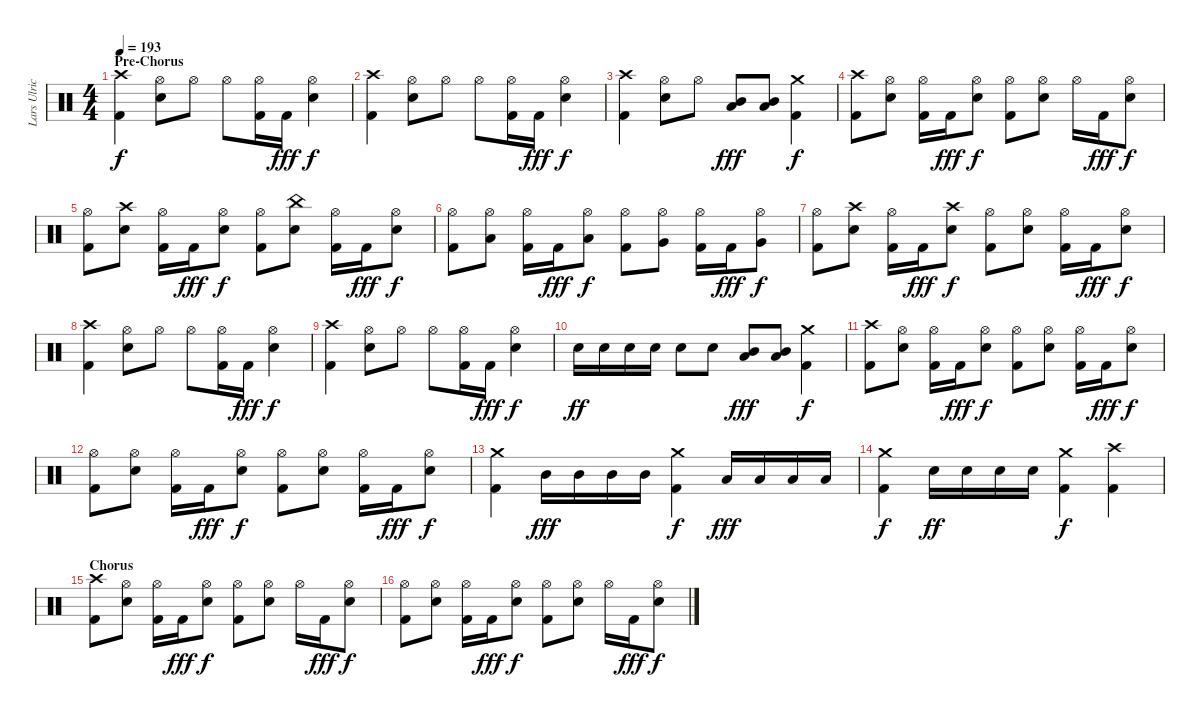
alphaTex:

\track ("Lars Ulrich - Drums" "Lars Ulric") {instrument percussion}
\staff {score}
\articulation defaults
\ts (4 4)
\section ("" "Pre-Chorus")
\tempo 193
\clef neutral
\ks c
("Crash high (hit)" "Kick (hit) 2").4{dy f} ("Hi-Hat (open)" "Snare (hit) 2").8 "Hi-Hat (open)".8 "Hi-Hat (open)".8 ("Hi-Hat (open)" "Kick (hit) 2").16 "Kick (hit) 2".16{dy fff} ("Hi-Hat (open)" "Snare (hit) 2").4{dy f} |
("Crash high (hit)" "Kick (hit) 2").4 ("Hi-Hat (open)" "Snare (hit) 2").8 "Hi-Hat (open)".8 "Hi-Hat (open)".8 ("Hi-Hat (open)" "Kick (hit) 2").16 "Kick (hit) 2".16{dy fff} ("Hi-Hat (open)" "Snare (hit) 2").4{dy f} |
("Crash high (hit)" "Kick (hit) 2").4 ("Hi-Hat (open)" "Snare (hit) 2").8 "Hi-Hat (open)".8 ("Mid Tom (hit)" "Low Tom (hit)").8{dy fff} ("Mid Tom (hit)" "Low Tom (hit)").8 ("Crash medium (hit)" "Kick (hit) 2").4{dy f} |
("Crash high (hit)" "Kick (hit) 2").8 ("Hi-Hat (open)" "Snare (hit) 2").8 ("Hi-Hat (open)" "Kick (hit) 2").16 "Kick (hit) 2".16{dy fff} ("Hi-Hat (open)" "Snare (hit) 2").8{dy f} ("Hi-Hat (open)" "Kick (hit) 2").8 ("Hi-Hat (open)" "Snare (hit) 2").8 "Hi-Hat (open)".16 "Kick (hit) 2".16{dy fff} ("Hi-Hat (open)" "Snare (hit) 2").8{dy f} |
("Hi-Hat (open)" "Kick (hit) 2").8 ("Crash high (hit)" "Snare (hit) 2").8 ("Hi-Hat (open)" "Kick (hit) 2").16 "Kick (hit) 2".16{dy fff} ("Hi-Hat (open)" "Snare (hit) 2").8{dy f} ("Hi-Hat (open)" "Kick (hit) 2").8 ("China (hit)" "Snare (hit) 2").8 ("Hi-Hat (open)" "Kick (hit) 2").16 "Kick (hit) 2".16{dy fff} ("Hi-Hat (open)" "Snare (hit) 2").8{dy f} |
("Hi-Hat (open)" "Kick (hit) 2").8 ("Hi-Hat (open)" "Low Tom (hit)").8 ("Hi-Hat (open)" "Kick (hit) 2").16 "Kick (hit) 2".16{dy fff} ("Hi-Hat (open)" "Low Tom (hit)").8{dy f} ("Hi-Hat (open)" "Kick (hit) 2").8 ("Hi-Hat (open)" "Very Low Tom (hit)").8 ("Hi-Hat (open)" "Kick (hit) 2").16 "Kick (hit) 2".16{dy fff} ("Hi-Hat (open)" "Very Low Tom (hit)").8{dy f} |
("Hi-Hat (open)" "Kick (hit) 2").8 ("Crash high (hit)" "Snare (hit) 2").8 ("Hi-Hat (open)" "Kick (hit) 2").16 "Kick (hit) 2".16{dy fff} ("Crash high (hit)" "Snare (hit) 2").8{dy f} ("Hi-Hat (open)" "Kick (hit) 2").8 ("Hi-Hat (open)" "Snare (hit) 2").8 ("Hi-Hat (open)" "Kick (hit) 2").16 "Kick (hit) 2".16{dy fff} ("Hi-Hat (open)" "Snare (hit) 2").8{dy f} |
("Crash high (hit)" "Kick (hit) 2").4 ("Hi-Hat (open)" "Snare (hit) 2").8 "Hi-Hat (open)".8 "Hi-Hat (open)".8 ("Hi-Hat (open)" "Kick (hit) 2").16 "Kick (hit) 2".16{dy fff} ("Hi-Hat (open)" "Snare (hit) 2").4{dy f} |
("Crash high (hit)" "Kick (hit) 2").4 ("Hi-Hat (open)" "Snare (hit) 2").8 "Hi-Hat (open)".8 "Hi-Hat (open)".8 ("Hi-Hat (open)" "Kick (hit) 2").16 "Kick (hit) 2".16{dy fff} ("Hi-Hat (open)" "Snare (hit) 2").4{dy f} |
"Snare (hit) 2".16{dy ff} "Snare (hit) 2".16 "Snare (hit) 2".16 "Snare (hit) 2".16 "Snare (hit) 2".8 "Snare (hit) 2".8 ("Mid Tom (hit)" "Low Tom (hit)").8{dy fff} ("Mid Tom (hit)" "Low Tom (hit)").8 ("Crash medium (hit)" "Kick (hit) 2").4{dy f} |
("Crash high (hit)" "Kick (hit) 2").8 ("Hi-Hat (open)" "Snare (hit) 2").8 ("Hi-Hat (open)" "Kick (hit) 2").16 "Kick (hit) 2".16{dy fff} ("Hi-Hat (open)" "Snare (hit) 2").8{dy f} ("Hi-Hat (open)" "Kick (hit) 2").8 ("Hi-Hat (open)" "Snare (hit) 2").8 ("Hi-Hat (open)" "Kick (hit) 2").16 "Kick (hit) 2".16{dy fff} ("Hi-Hat (open)" "Snare (hit) 2").8{dy f} |
("Hi-Hat (open)" "Kick (hit) 2").8 ("Hi-Hat (open)" "Snare (hit) 2").8 ("Hi-Hat (open)" "Kick (hit) 2").16 "Kick (hit) 2".16{dy fff} ("Hi-Hat (open)" "Snare (hit) 2").8{dy f} ("Hi-Hat (open)" "Kick (hit) 2").8 ("Hi-Hat (open)" "Snare (hit) 2").8 ("Hi-Hat (open)" "Kick (hit) 2").16 "Kick (hit) 2".16{dy fff} ("Hi-Hat (open)" "Snare (hit) 2").8{dy f} |
("Crash medium (hit)" "Kick (hit) 2").4 "Mid Tom (hit)".16{dy fff} "Mid Tom (hit)".16 "Mid Tom (hit)".16 "Mid Tom (hit)".16 ("Crash medium (hit)" "Kick (hit) 2").4{dy f} "Low Tom (hit)".16{dy fff} "Low Tom (hit)".16 "Low Tom (hit)".16 "Low Tom (hit)".16 |
("Crash medium (hit)" "Kick (hit) 2").4{dy f} "Snare (hit) 2".16{dy ff} "Snare (hit) 2".16 "Snare (hit) 2".16 "Snare (hit) 2".16 ("Crash medium (hit)" "Kick (hit) 2").4{dy f} ("Crash high (hit)" "Kick (hit) 2").4 |
\section ("" "Chorus")
("Crash high (hit)" "Kick (hit) 2").8 ("Hi-Hat (open)" "Snare (hit) 2").8 ("Hi-Hat (open)" "Kick (hit) 2").16 "Kick (hit) 2".16{dy fff} ("Hi-Hat (open)" "Snare (hit) 2").8{dy f} ("Hi-Hat (open)" "Kick (hit) 2").8 ("Hi-Hat (open)" "Snare (hit) 2").8 "Hi-Hat (open)".16 "Kick (hit) 2".16{dy fff} ("Hi-Hat (open)" "Snare (hit) 2").8{dy f} |
("Hi-Hat (open)" "Kick (hit) 2").8 ("Hi-Hat (open)" "Snare (hit) 2").8 ("Hi-Hat (open)" "Kick (hit) 2").16 "Kick (hit) 2".16{dy fff} ("Hi-Hat (open)" "Snare (hit) 2").8{dy f} ("Hi-Hat (open)" "Kick (hit) 2").8 ("Hi-Hat (open)" "Snare (hit) 2").8 "Hi-Hat (open)".16 "Kick (hit) 2".16{dy fff} ("Hi-Hat (open)" "Snare (hit) 2").8{dy f}
